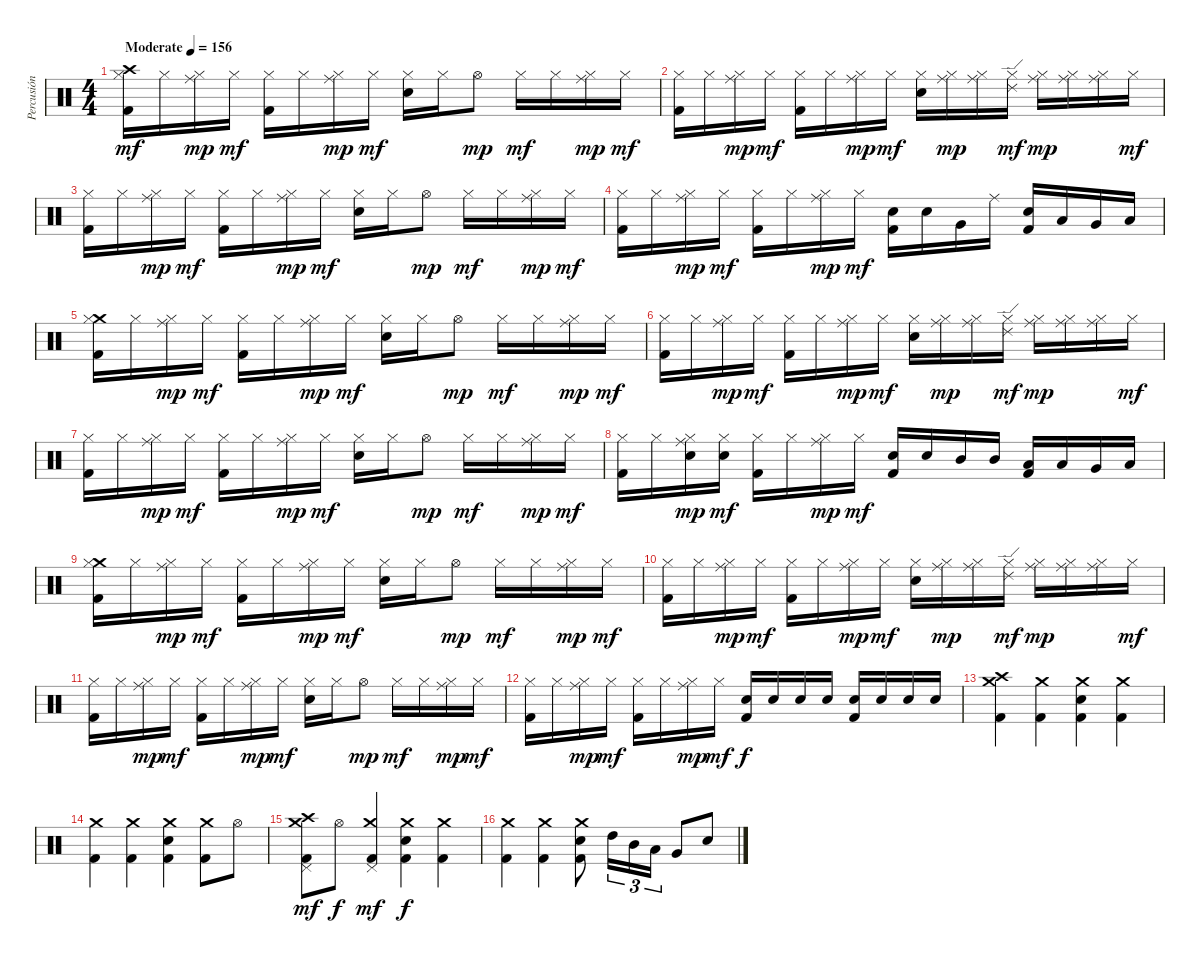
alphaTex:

\track ("Percusión" "Percusión") {instrument percussion}
\staff {score}
\articulation defaults
\ts (4 4)
\tempo (156 "Moderate")
\clef neutral
\ks c
("Crash high (hit)" "Hi-Hat (closed)" "Kick (hit) 2").16{dy mf} "Hi-Hat (closed)".16 ("Hi-Hat (closed)" "Ride (middle)").16{dy mp} "Hi-Hat (closed)".16{dy mf} ("Hi-Hat (closed)" "Kick (hit) 2").16 "Hi-Hat (closed)".16 ("Hi-Hat (closed)" "Ride (middle)").16{dy mp} "Hi-Hat (closed)".16{dy mf} ("Hi-Hat (closed)" "Electric Snare (hit)").16 "Hi-Hat (closed)".16 "Hi-Hat (open)".8{dy mp} "Hi-Hat (closed)".16{dy mf} "Hi-Hat (closed)".16 ("Hi-Hat (closed)" "Ride (middle)").16{dy mp} "Hi-Hat (closed)".16{dy mf} |
("Hi-Hat (closed)" "Kick (hit) 2").16 "Hi-Hat (closed)".16 ("Hi-Hat (closed)" "Ride (middle)").16{dy mp} "Hi-Hat (closed)".16{dy mf} ("Hi-Hat (closed)" "Kick (hit) 2").16 "Hi-Hat (closed)".16 ("Hi-Hat (closed)" "Ride (middle)").16{dy mp} "Hi-Hat (closed)".16{dy mf} ("Hi-Hat (closed)" "Electric Snare (hit)").16 ("Hi-Hat (closed)" "Ride (middle)").16{dy mp} ("Hi-Hat (closed)" "Ride (middle)").16 ("Hi-Hat (closed)" "Ride (edge) 2").16{dy mf} ("Hi-Hat (closed)" "Ride (middle)").16{dy mp} ("Hi-Hat (closed)" "Ride (middle)").16 ("Hi-Hat (closed)" "Ride (middle)").16 "Hi-Hat (closed)".16{dy mf} |
("Hi-Hat (closed)" "Kick (hit) 2").16 "Hi-Hat (closed)".16 ("Hi-Hat (closed)" "Ride (middle)").16{dy mp} "Hi-Hat (closed)".16{dy mf} ("Hi-Hat (closed)" "Kick (hit) 2").16 "Hi-Hat (closed)".16 ("Hi-Hat (closed)" "Ride (middle)").16{dy mp} "Hi-Hat (closed)".16{dy mf} ("Hi-Hat (closed)" "Electric Snare (hit)").16 "Hi-Hat (closed)".16 "Hi-Hat (open)".8{dy mp} "Hi-Hat (closed)".16{dy mf} "Hi-Hat (closed)".16 ("Hi-Hat (closed)" "Ride (middle)").16{dy mp} "Hi-Hat (closed)".16{dy mf} |
("Hi-Hat (closed)" "Kick (hit) 2").16 "Hi-Hat (closed)".16 ("Hi-Hat (closed)" "Ride (middle)").16{dy mp} "Hi-Hat (closed)".16{dy mf} ("Hi-Hat (closed)" "Kick (hit) 2").16 "Hi-Hat (closed)".16 ("Hi-Hat (closed)" "Ride (middle)").16{dy mp} "Hi-Hat (closed)".16{dy mf} ("Electric Snare (hit)" "Kick (hit) 2").16 "Electric Snare (hit)".16 "Very Low Tom (hit)".16 "Ride (middle)".16 ("Electric Snare (hit)" "Kick (hit) 2").16 "Low Tom (hit)".16 "Very Low Tom (hit)".16 "Low Floor Tom (hit)".16 |
("Crash medium (hit)" "Hi-Hat (closed)" "Kick (hit) 2").16 "Hi-Hat (closed)".16 ("Hi-Hat (closed)" "Ride (middle)").16{dy mp} "Hi-Hat (closed)".16{dy mf} ("Hi-Hat (closed)" "Kick (hit) 2").16 "Hi-Hat (closed)".16 ("Hi-Hat (closed)" "Ride (middle)").16{dy mp} "Hi-Hat (closed)".16{dy mf} ("Hi-Hat (closed)" "Electric Snare (hit)").16 "Hi-Hat (closed)".16 "Hi-Hat (open)".8{dy mp} "Hi-Hat (closed)".16{dy mf} "Hi-Hat (closed)".16 ("Hi-Hat (closed)" "Ride (middle)").16{dy mp} "Hi-Hat (closed)".16{dy mf} |
("Hi-Hat (closed)" "Kick (hit) 2").16 "Hi-Hat (closed)".16 ("Hi-Hat (closed)" "Ride (middle)").16{dy mp} "Hi-Hat (closed)".16{dy mf} ("Hi-Hat (closed)" "Kick (hit) 2").16 "Hi-Hat (closed)".16 ("Hi-Hat (closed)" "Ride (middle)").16{dy mp} "Hi-Hat (closed)".16{dy mf} ("Hi-Hat (closed)" "Electric Snare (hit)").16 ("Hi-Hat (closed)" "Ride (middle)").16{dy mp} ("Hi-Hat (closed)" "Ride (middle)").16 ("Hi-Hat (closed)" "Ride (edge) 2").16{dy mf} ("Hi-Hat (closed)" "Ride (middle)").16{dy mp} ("Hi-Hat (closed)" "Ride (middle)").16 ("Hi-Hat (closed)" "Ride (middle)").16 "Hi-Hat (closed)".16{dy mf} |
("Hi-Hat (closed)" "Kick (hit) 2").16 "Hi-Hat (closed)".16 ("Hi-Hat (closed)" "Ride (middle)").16{dy mp} "Hi-Hat (closed)".16{dy mf} ("Hi-Hat (closed)" "Kick (hit) 2").16 "Hi-Hat (closed)".16 ("Hi-Hat (closed)" "Ride (middle)").16{dy mp} "Hi-Hat (closed)".16{dy mf} ("Hi-Hat (closed)" "Electric Snare (hit)").16 "Hi-Hat (closed)".16 "Hi-Hat (open)".8{dy mp} "Hi-Hat (closed)".16{dy mf} "Hi-Hat (closed)".16 ("Hi-Hat (closed)" "Ride (middle)").16{dy mp} "Hi-Hat (closed)".16{dy mf} |
("Hi-Hat (closed)" "Kick (hit) 2").16 "Hi-Hat (closed)".16 ("Hi-Hat (closed)" "Electric Snare (hit)" "Ride (middle)").16{dy mp} ("Hi-Hat (closed)" "Electric Snare (hit)").16{dy mf} ("Hi-Hat (closed)" "Kick (hit) 2").16 "Hi-Hat (closed)".16 ("Hi-Hat (closed)" "Ride (middle)").16{dy mp} "Hi-Hat (closed)".16{dy mf} ("Electric Snare (hit)" "Kick (hit) 2").16 "Electric Snare (hit)".16 "Mid Tom (hit)".16 "Mid Tom (hit)".16 ("Low Tom (hit)" "Kick (hit) 2").16 "Low Tom (hit)".16 "Very Low Tom (hit)".16 "Low Floor Tom (hit)".16 |
("Crash medium (hit)" "Hi-Hat (closed)" "Kick (hit) 2").16 "Hi-Hat (closed)".16 ("Hi-Hat (closed)" "Ride (middle)").16{dy mp} "Hi-Hat (closed)".16{dy mf} ("Hi-Hat (closed)" "Kick (hit) 2").16 "Hi-Hat (closed)".16 ("Hi-Hat (closed)" "Ride (middle)").16{dy mp} "Hi-Hat (closed)".16{dy mf} ("Hi-Hat (closed)" "Electric Snare (hit)").16 "Hi-Hat (closed)".16 "Hi-Hat (open)".8{dy mp} "Hi-Hat (closed)".16{dy mf} "Hi-Hat (closed)".16 ("Hi-Hat (closed)" "Ride (middle)").16{dy mp} "Hi-Hat (closed)".16{dy mf} |
("Hi-Hat (closed)" "Kick (hit) 2").16 "Hi-Hat (closed)".16 ("Hi-Hat (closed)" "Ride (middle)").16{dy mp} "Hi-Hat (closed)".16{dy mf} ("Hi-Hat (closed)" "Kick (hit) 2").16 "Hi-Hat (closed)".16 ("Hi-Hat (closed)" "Ride (middle)").16{dy mp} "Hi-Hat (closed)".16{dy mf} ("Hi-Hat (closed)" "Electric Snare (hit)").16 ("Hi-Hat (closed)" "Ride (middle)").16{dy mp} ("Hi-Hat (closed)" "Ride (middle)").16 ("Hi-Hat (closed)" "Ride (edge) 2").16{dy mf} ("Hi-Hat (closed)" "Ride (middle)").16{dy mp} ("Hi-Hat (closed)" "Ride (middle)").16 ("Hi-Hat (closed)" "Ride (middle)").16 "Hi-Hat (closed)".16{dy mf} |
("Hi-Hat (closed)" "Kick (hit) 2").16 "Hi-Hat (closed)".16 ("Hi-Hat (closed)" "Ride (middle)").16{dy mp} "Hi-Hat (closed)".16{dy mf} ("Hi-Hat (closed)" "Kick (hit) 2").16 "Hi-Hat (closed)".16 ("Hi-Hat (closed)" "Ride (middle)").16{dy mp} "Hi-Hat (closed)".16{dy mf} ("Hi-Hat (closed)" "Electric Snare (hit)").16 "Hi-Hat (closed)".16 "Hi-Hat (open)".8{dy mp} "Hi-Hat (closed)".16{dy mf} "Hi-Hat (closed)".16 ("Hi-Hat (closed)" "Ride (middle)").16{dy mp} "Hi-Hat (closed)".16{dy mf} |
("Hi-Hat (closed)" "Kick (hit) 2").16 "Hi-Hat (closed)".16 ("Hi-Hat (closed)" "Ride (middle)").16{dy mp} "Hi-Hat (closed)".16{dy mf} ("Hi-Hat (closed)" "Kick (hit) 2").16 "Hi-Hat (closed)".16 ("Hi-Hat (closed)" "Ride (middle)").16{dy mp} "Hi-Hat (closed)".16{dy mf} ("Electric Snare (hit)" "Kick (hit) 2").16{dy f} "Electric Snare (hit)".16 "Electric Snare (hit)".16 "Electric Snare (hit)".16 ("Electric Snare (hit)" "Kick (hit) 2").16 "Electric Snare (hit)".16 "Electric Snare (hit)".16 "Electric Snare (hit)".16 |
("Crash high (hit)" "Crash medium (hit)" "Kick (hit) 2").4 ("Crash medium (hit)" "Kick (hit) 2").4 ("Crash medium (hit)" "Kick (hit) 2" "Electric Snare (hit)").4 ("Crash medium (hit)" "Kick (hit) 2").4 |
("Crash medium (hit)" "Kick (hit) 2").4 ("Crash medium (hit)" "Kick (hit) 2").4 ("Crash medium (hit)" "Kick (hit) 2" "Electric Snare (hit)").4 ("Crash medium (hit)" "Kick (hit) 2").8 "Hi-Hat (open)".8 |
("Crash high (hit)" "Crash medium (hit)" "Kick (hit) 2" "Pedal Hi-Hat (hit)").8{dy mf} "Hi-Hat (open)".8{dy f} ("Crash medium (hit)" "Kick (hit) 2" "Pedal Hi-Hat (hit)").4{dy mf} ("Crash medium (hit)" "Kick (hit) 2" "Electric Snare (hit)").4{dy f} ("Crash medium (hit)" "Kick (hit) 2").4 |
("Crash medium (hit)" "Kick (hit) 2").4 ("Crash medium (hit)" "Kick (hit) 2").4 ("Crash medium (hit)" "Kick (hit) 2" "Electric Snare (hit)").8 "High Tom (hit)".16{tu (3 2)} "Mid Tom (hit)".16{tu (3 2)} "Low Tom (hit)".16{tu (3 2)} "Very Low Tom (hit)".8 "Electric Snare (hit)".8
